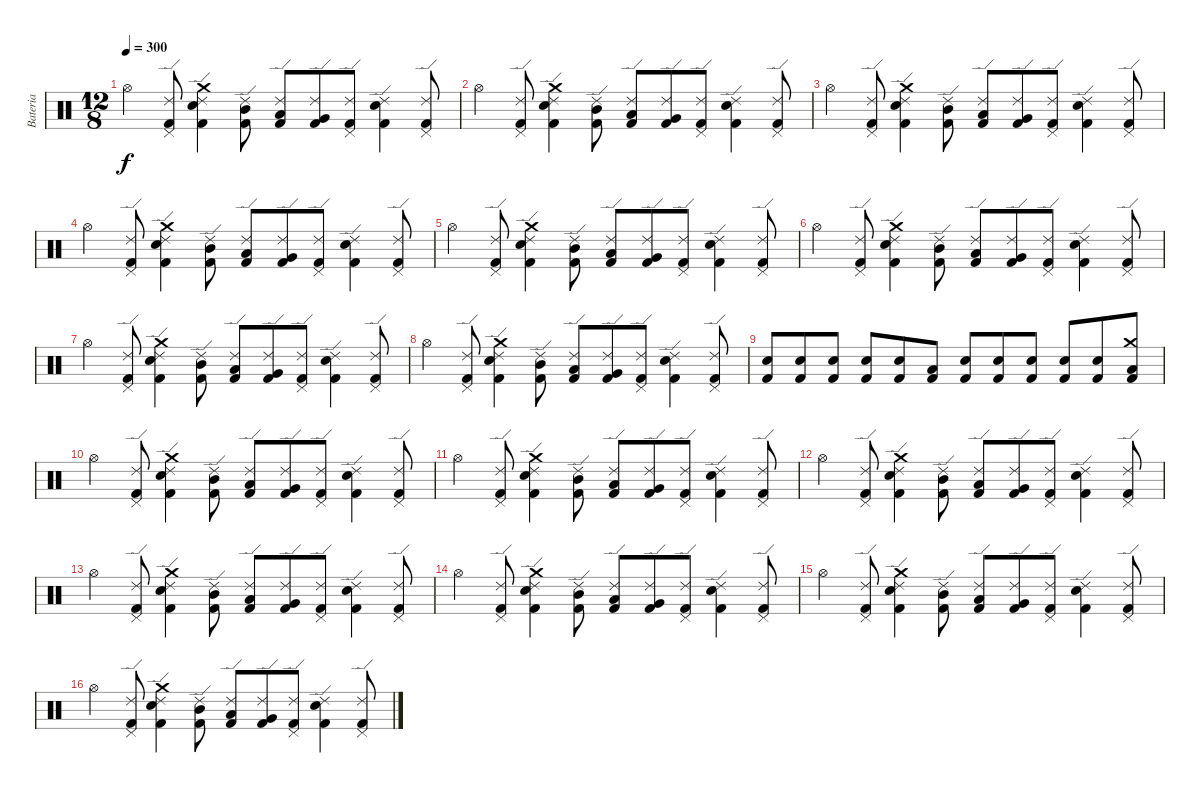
\track ("Bateria" "Bateria") {instrument percussion}
\staff {score}
\articulation defaults
\ts (12 8)
\tempo 300
\clef neutral
\ks c "Hi-Hat (open)".4{dy f}
("Ride (edge) 2" "Pedal Hi-Hat (hit)" "Kick (hit) 2").8 ("Ride (edge) 2" "Crash medium (hit)" "Snare (hit) 2" "Kick (hit) 2").4 ("Ride (edge) 2" "Mid Tom (hit)" "Kick (hit) 2").8 ("Ride (edge) 2" "Low Tom (hit)" "Kick (hit) 2").8 ("Ride (edge) 2" "Very Low Tom (hit)" "Kick (hit) 2").8 ("Ride (edge) 2" "Pedal Hi-Hat (hit)" "Kick (hit) 2").8 ("Ride (edge) 2" "Snare (hit) 2" "Kick (hit) 2").4 ("Ride (edge) 2" "Pedal Hi-Hat (hit)" "Kick (hit) 2").8 |
"Hi-Hat (open)".4 ("Ride (edge) 2" "Pedal Hi-Hat (hit)" "Kick (hit) 2").8 ("Ride (edge) 2" "Crash medium (hit)" "Snare (hit) 2" "Kick (hit) 2").4 ("Ride (edge) 2" "Mid Tom (hit)" "Kick (hit) 2").8 ("Ride (edge) 2" "Low Tom (hit)" "Kick (hit) 2").8 ("Ride (edge) 2" "Very Low Tom (hit)" "Kick (hit) 2").8 ("Ride (edge) 2" "Pedal Hi-Hat (hit)" "Kick (hit) 2").8 ("Ride (edge) 2" "Snare (hit) 2" "Kick (hit) 2").4 ("Ride (edge) 2" "Pedal Hi-Hat (hit)" "Kick (hit) 2").8 |
"Hi-Hat (open)".4 ("Ride (edge) 2" "Pedal Hi-Hat (hit)" "Kick (hit) 2").8 ("Ride (edge) 2" "Crash medium (hit)" "Snare (hit) 2" "Kick (hit) 2").4 ("Ride (edge) 2" "Mid Tom (hit)" "Kick (hit) 2").8 ("Ride (edge) 2" "Low Tom (hit)" "Kick (hit) 2").8 ("Ride (edge) 2" "Very Low Tom (hit)" "Kick (hit) 2").8 ("Ride (edge) 2" "Pedal Hi-Hat (hit)" "Kick (hit) 2").8 ("Ride (edge) 2" "Snare (hit) 2" "Kick (hit) 2").4 ("Ride (edge) 2" "Pedal Hi-Hat (hit)" "Kick (hit) 2").8 |
"Hi-Hat (open)".4 ("Ride (edge) 2" "Pedal Hi-Hat (hit)" "Kick (hit) 2").8 ("Ride (edge) 2" "Crash medium (hit)" "Snare (hit) 2" "Kick (hit) 2").4 ("Ride (edge) 2" "Mid Tom (hit)" "Kick (hit) 2").8 ("Ride (edge) 2" "Low Tom (hit)" "Kick (hit) 2").8 ("Ride (edge) 2" "Very Low Tom (hit)" "Kick (hit) 2").8 ("Ride (edge) 2" "Pedal Hi-Hat (hit)" "Kick (hit) 2").8 ("Ride (edge) 2" "Snare (hit) 2" "Kick (hit) 2").4 ("Ride (edge) 2" "Pedal Hi-Hat (hit)" "Kick (hit) 2").8 |
"Hi-Hat (open)".4 ("Ride (edge) 2" "Pedal Hi-Hat (hit)" "Kick (hit) 2").8 ("Ride (edge) 2" "Crash medium (hit)" "Snare (hit) 2" "Kick (hit) 2").4 ("Ride (edge) 2" "Mid Tom (hit)" "Kick (hit) 2").8 ("Ride (edge) 2" "Low Tom (hit)" "Kick (hit) 2").8 ("Ride (edge) 2" "Very Low Tom (hit)" "Kick (hit) 2").8 ("Ride (edge) 2" "Pedal Hi-Hat (hit)" "Kick (hit) 2").8 ("Ride (edge) 2" "Snare (hit) 2" "Kick (hit) 2").4 ("Ride (edge) 2" "Pedal Hi-Hat (hit)" "Kick (hit) 2").8 |
"Hi-Hat (open)".4 ("Ride (edge) 2" "Pedal Hi-Hat (hit)" "Kick (hit) 2").8 ("Ride (edge) 2" "Crash medium (hit)" "Snare (hit) 2" "Kick (hit) 2").4 ("Ride (edge) 2" "Mid Tom (hit)" "Kick (hit) 2").8 ("Ride (edge) 2" "Low Tom (hit)" "Kick (hit) 2").8 ("Ride (edge) 2" "Very Low Tom (hit)" "Kick (hit) 2").8 ("Ride (edge) 2" "Pedal Hi-Hat (hit)" "Kick (hit) 2").8 ("Ride (edge) 2" "Snare (hit) 2" "Kick (hit) 2").4 ("Ride (edge) 2" "Pedal Hi-Hat (hit)" "Kick (hit) 2").8 |
"Hi-Hat (open)".4 ("Ride (edge) 2" "Pedal Hi-Hat (hit)" "Kick (hit) 2").8 ("Ride (edge) 2" "Crash medium (hit)" "Snare (hit) 2" "Kick (hit) 2").4 ("Ride (edge) 2" "Mid Tom (hit)" "Kick (hit) 2").8 ("Ride (edge) 2" "Low Tom (hit)" "Kick (hit) 2").8 ("Ride (edge) 2" "Very Low Tom (hit)" "Kick (hit) 2").8 ("Ride (edge) 2" "Pedal Hi-Hat (hit)" "Kick (hit) 2").8 ("Ride (edge) 2" "Snare (hit) 2" "Kick (hit) 2").4 ("Ride (edge) 2" "Pedal Hi-Hat (hit)" "Kick (hit) 2").8 |
"Hi-Hat (open)".4 ("Ride (edge) 2" "Pedal Hi-Hat (hit)" "Kick (hit) 2").8 ("Ride (edge) 2" "Crash medium (hit)" "Snare (hit) 2" "Kick (hit) 2").4 ("Ride (edge) 2" "Mid Tom (hit)" "Kick (hit) 2").8 ("Ride (edge) 2" "Low Tom (hit)" "Kick (hit) 2").8 ("Ride (edge) 2" "Very Low Tom (hit)" "Kick (hit) 2").8 ("Ride (edge) 2" "Pedal Hi-Hat (hit)" "Kick (hit) 2").8 ("Ride (edge) 2" "Snare (hit) 2" "Kick (hit) 2").4 ("Ride (edge) 2" "Pedal Hi-Hat (hit)" "Kick (hit) 2").8 |
("Snare (hit) 2" "Kick (hit) 2").8 ("Snare (hit) 2" "Kick (hit) 2").8 ("Snare (hit) 2" "Kick (hit) 2").8 ("Snare (hit) 2" "Kick (hit) 2").8 ("Snare (hit) 2" "Kick (hit) 2").8 ("Low Tom (hit)" "Kick (hit) 2").8 ("Snare (hit) 2" "Kick (hit) 2").8 ("Snare (hit) 2" "Kick (hit) 2").8 ("Snare (hit) 2" "Kick (hit) 2").8 ("Snare (hit) 2" "Kick (hit) 2").8 ("Snare (hit) 2" "Kick (hit) 2").8 ("Crash medium (hit)" "Low Tom (hit)" "Kick (hit) 2").8 |
"Hi-Hat (open)".4 ("Ride (edge) 2" "Pedal Hi-Hat (hit)" "Kick (hit) 2").8 ("Ride (edge) 2" "Crash medium (hit)" "Snare (hit) 2" "Kick (hit) 2").4 ("Ride (edge) 2" "Mid Tom (hit)" "Kick (hit) 2").8 ("Ride (edge) 2" "Low Tom (hit)" "Kick (hit) 2").8 ("Ride (edge) 2" "Very Low Tom (hit)" "Kick (hit) 2").8 ("Ride (edge) 2" "Pedal Hi-Hat (hit)" "Kick (hit) 2").8 ("Ride (edge) 2" "Snare (hit) 2" "Kick (hit) 2").4 ("Ride (edge) 2" "Pedal Hi-Hat (hit)" "Kick (hit) 2").8 |
"Hi-Hat (open)".4 ("Ride (edge) 2" "Pedal Hi-Hat (hit)" "Kick (hit) 2").8 ("Ride (edge) 2" "Crash medium (hit)" "Snare (hit) 2" "Kick (hit) 2").4 ("Ride (edge) 2" "Mid Tom (hit)" "Kick (hit) 2").8 ("Ride (edge) 2" "Low Tom (hit)" "Kick (hit) 2").8 ("Ride (edge) 2" "Very Low Tom (hit)" "Kick (hit) 2").8 ("Ride (edge) 2" "Pedal Hi-Hat (hit)" "Kick (hit) 2").8 ("Ride (edge) 2" "Snare (hit) 2" "Kick (hit) 2").4 ("Ride (edge) 2" "Pedal Hi-Hat (hit)" "Kick (hit) 2").8 |
"Hi-Hat (open)".4 ("Ride (edge) 2" "Pedal Hi-Hat (hit)" "Kick (hit) 2").8 ("Ride (edge) 2" "Crash medium (hit)" "Snare (hit) 2" "Kick (hit) 2").4 ("Ride (edge) 2" "Mid Tom (hit)" "Kick (hit) 2").8 ("Ride (edge) 2" "Low Tom (hit)" "Kick (hit) 2").8 ("Ride (edge) 2" "Very Low Tom (hit)" "Kick (hit) 2").8 ("Ride (edge) 2" "Pedal Hi-Hat (hit)" "Kick (hit) 2").8 ("Ride (edge) 2" "Snare (hit) 2" "Kick (hit) 2").4 ("Ride (edge) 2" "Pedal Hi-Hat (hit)" "Kick (hit) 2").8 |
"Hi-Hat (open)".4 ("Ride (edge) 2" "Pedal Hi-Hat (hit)" "Kick (hit) 2").8 ("Ride (edge) 2" "Crash medium (hit)" "Snare (hit) 2" "Kick (hit) 2").4 ("Ride (edge) 2" "Mid Tom (hit)" "Kick (hit) 2").8 ("Ride (edge) 2" "Low Tom (hit)" "Kick (hit) 2").8 ("Ride (edge) 2" "Very Low Tom (hit)" "Kick (hit) 2").8 ("Ride (edge) 2" "Pedal Hi-Hat (hit)" "Kick (hit) 2").8 ("Ride (edge) 2" "Snare (hit) 2" "Kick (hit) 2").4 ("Ride (edge) 2" "Pedal Hi-Hat (hit)" "Kick (hit) 2").8 |
"Hi-Hat (open)".4 ("Ride (edge) 2" "Pedal Hi-Hat (hit)" "Kick (hit) 2").8 ("Ride (edge) 2" "Crash medium (hit)" "Snare (hit) 2" "Kick (hit) 2").4 ("Ride (edge) 2" "Mid Tom (hit)" "Kick (hit) 2").8 ("Ride (edge) 2" "Low Tom (hit)" "Kick (hit) 2").8 ("Ride (edge) 2" "Very Low Tom (hit)" "Kick (hit) 2").8 ("Ride (edge) 2" "Pedal Hi-Hat (hit)" "Kick (hit) 2").8 ("Ride (edge) 2" "Snare (hit) 2" "Kick (hit) 2").4 ("Ride (edge) 2" "Pedal Hi-Hat (hit)" "Kick (hit) 2").8 |
"Hi-Hat (open)".4 ("Ride (edge) 2" "Pedal Hi-Hat (hit)" "Kick (hit) 2").8 ("Ride (edge) 2" "Crash medium (hit)" "Snare (hit) 2" "Kick (hit) 2").4 ("Ride (edge) 2" "Mid Tom (hit)" "Kick (hit) 2").8 ("Ride (edge) 2" "Low Tom (hit)" "Kick (hit) 2").8 ("Ride (edge) 2" "Very Low Tom (hit)" "Kick (hit) 2").8 ("Ride (edge) 2" "Pedal Hi-Hat (hit)" "Kick (hit) 2").8 ("Ride (edge) 2" "Snare (hit) 2" "Kick (hit) 2").4 ("Ride (edge) 2" "Pedal Hi-Hat (hit)" "Kick (hit) 2").8 |
"Hi-Hat (open)".4 ("Ride (edge) 2" "Pedal Hi-Hat (hit)" "Kick (hit) 2").8 ("Ride (edge) 2" "Crash medium (hit)" "Snare (hit) 2" "Kick (hit) 2").4 ("Ride (edge) 2" "Mid Tom (hit)" "Kick (hit) 2").8 ("Ride (edge) 2" "Low Tom (hit)" "Kick (hit) 2").8 ("Ride (edge) 2" "Very Low Tom (hit)" "Kick (hit) 2").8 ("Ride (edge) 2" "Pedal Hi-Hat (hit)" "Kick (hit) 2").8 ("Ride (edge) 2" "Snare (hit) 2" "Kick (hit) 2").4 ("Ride (edge) 2" "Pedal Hi-Hat (hit)" "Kick (hit) 2").8
